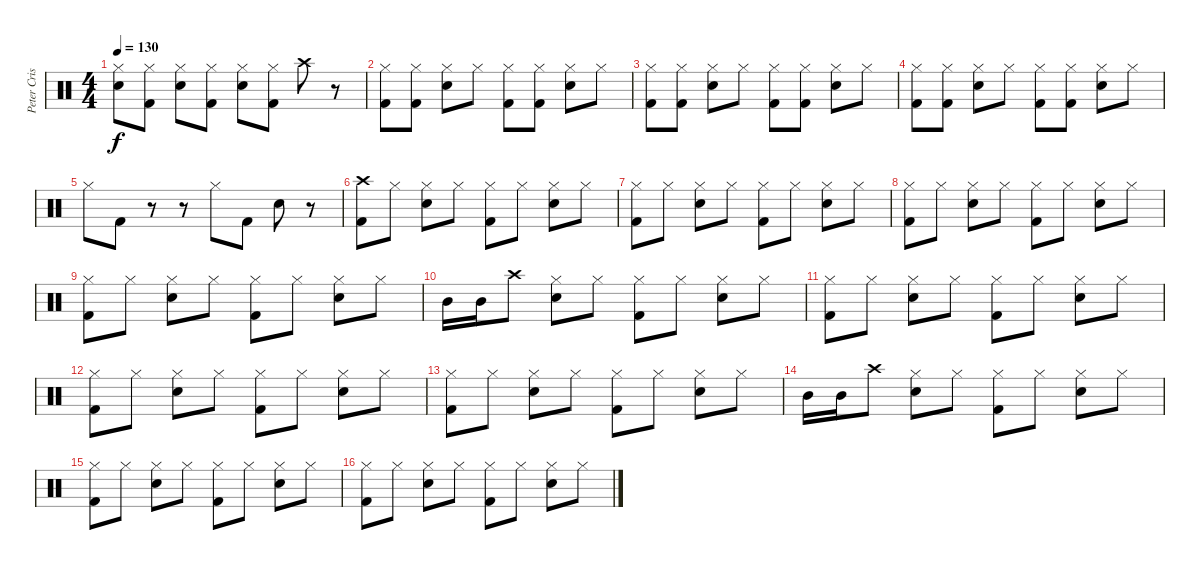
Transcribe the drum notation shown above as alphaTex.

\track ("Peter Criss" "Peter Cris") {instrument percussion}
\staff {score}
\articulation defaults
\ts (4 4)
\tempo 130
\clef neutral
\ks c
("Hi-Hat (closed)" "Electric Snare (hit)").8{dy f} ("Hi-Hat (closed)" "Kick (hit) 2").8 ("Hi-Hat (closed)" "Electric Snare (hit)").8 ("Hi-Hat (closed)" "Kick (hit) 2").8 ("Hi-Hat (closed)" "Electric Snare (hit)").8 ("Hi-Hat (closed)" "Kick (hit) 2").8 "Crash high (hit)".8 r.8 |
("Hi-Hat (closed)" "Kick (hit) 2").8 ("Hi-Hat (closed)" "Kick (hit) 2").8 ("Hi-Hat (closed)" "Electric Snare (hit)").8 "Hi-Hat (closed)".8 ("Hi-Hat (closed)" "Kick (hit) 2").8 ("Hi-Hat (closed)" "Kick (hit) 2").8 ("Hi-Hat (closed)" "Electric Snare (hit)").8 "Hi-Hat (closed)".8 |
("Hi-Hat (closed)" "Kick (hit) 2").8 ("Hi-Hat (closed)" "Kick (hit) 2").8 ("Hi-Hat (closed)" "Electric Snare (hit)").8 "Hi-Hat (closed)".8 ("Hi-Hat (closed)" "Kick (hit) 2").8 ("Hi-Hat (closed)" "Kick (hit) 2").8 ("Hi-Hat (closed)" "Electric Snare (hit)").8 "Hi-Hat (closed)".8 |
("Hi-Hat (closed)" "Kick (hit) 2").8 ("Hi-Hat (closed)" "Kick (hit) 2").8 ("Hi-Hat (closed)" "Electric Snare (hit)").8 "Hi-Hat (closed)".8 ("Hi-Hat (closed)" "Kick (hit) 2").8 ("Hi-Hat (closed)" "Kick (hit) 2").8 ("Hi-Hat (closed)" "Electric Snare (hit)").8 "Hi-Hat (closed)".8 |
"Hi-Hat (closed)".8 "Kick (hit) 2".8 r.8 r.8 "Hi-Hat (closed)".8 "Kick (hit) 2".8 "Electric Snare (hit)".8 r.8 |
("Crash high (hit)" "Kick (hit) 2").8 "Hi-Hat (closed)".8 ("Hi-Hat (closed)" "Electric Snare (hit)").8 "Hi-Hat (closed)".8 ("Hi-Hat (closed)" "Kick (hit) 2").8 "Hi-Hat (closed)".8 ("Hi-Hat (closed)" "Electric Snare (hit)").8 "Hi-Hat (closed)".8 |
("Hi-Hat (closed)" "Kick (hit) 2").8 "Hi-Hat (closed)".8 ("Hi-Hat (closed)" "Electric Snare (hit)").8 "Hi-Hat (closed)".8 ("Hi-Hat (closed)" "Kick (hit) 2").8 "Hi-Hat (closed)".8 ("Hi-Hat (closed)" "Electric Snare (hit)").8 "Hi-Hat (closed)".8 |
("Hi-Hat (closed)" "Kick (hit) 2").8 "Hi-Hat (closed)".8 ("Hi-Hat (closed)" "Electric Snare (hit)").8 "Hi-Hat (closed)".8 ("Hi-Hat (closed)" "Kick (hit) 2").8 "Hi-Hat (closed)".8 ("Hi-Hat (closed)" "Electric Snare (hit)").8 "Hi-Hat (closed)".8 |
("Hi-Hat (closed)" "Kick (hit) 2").8 "Hi-Hat (closed)".8 ("Hi-Hat (closed)" "Electric Snare (hit)").8 "Hi-Hat (closed)".8 ("Hi-Hat (closed)" "Kick (hit) 2").8 "Hi-Hat (closed)".8 ("Hi-Hat (closed)" "Electric Snare (hit)").8 "Hi-Hat (closed)".8 |
"Mid Tom (hit)".16 "Mid Tom (hit)".16 "Crash high (hit)".8 ("Hi-Hat (closed)" "Electric Snare (hit)").8 "Hi-Hat (closed)".8 ("Hi-Hat (closed)" "Kick (hit) 2").8 "Hi-Hat (closed)".8 ("Hi-Hat (closed)" "Electric Snare (hit)").8 "Hi-Hat (closed)".8 |
("Hi-Hat (closed)" "Kick (hit) 2").8 "Hi-Hat (closed)".8 ("Hi-Hat (closed)" "Electric Snare (hit)").8 "Hi-Hat (closed)".8 ("Hi-Hat (closed)" "Kick (hit) 2").8 "Hi-Hat (closed)".8 ("Hi-Hat (closed)" "Electric Snare (hit)").8 "Hi-Hat (closed)".8 |
("Hi-Hat (closed)" "Kick (hit) 2").8 "Hi-Hat (closed)".8 ("Hi-Hat (closed)" "Electric Snare (hit)").8 "Hi-Hat (closed)".8 ("Hi-Hat (closed)" "Kick (hit) 2").8 "Hi-Hat (closed)".8 ("Hi-Hat (closed)" "Electric Snare (hit)").8 "Hi-Hat (closed)".8 |
("Hi-Hat (closed)" "Kick (hit) 2").8 "Hi-Hat (closed)".8 ("Hi-Hat (closed)" "Electric Snare (hit)").8 "Hi-Hat (closed)".8 ("Hi-Hat (closed)" "Kick (hit) 2").8 "Hi-Hat (closed)".8 ("Hi-Hat (closed)" "Electric Snare (hit)").8 "Hi-Hat (closed)".8 |
"Mid Tom (hit)".16 "Mid Tom (hit)".16 "Crash high (hit)".8 ("Hi-Hat (closed)" "Electric Snare (hit)").8 "Hi-Hat (closed)".8 ("Hi-Hat (closed)" "Kick (hit) 2").8 "Hi-Hat (closed)".8 ("Hi-Hat (closed)" "Electric Snare (hit)").8 "Hi-Hat (closed)".8 |
("Hi-Hat (closed)" "Kick (hit) 2").8 "Hi-Hat (closed)".8 ("Hi-Hat (closed)" "Electric Snare (hit)").8 "Hi-Hat (closed)".8 ("Hi-Hat (closed)" "Kick (hit) 2").8 "Hi-Hat (closed)".8 ("Hi-Hat (closed)" "Electric Snare (hit)").8 "Hi-Hat (closed)".8 |
("Hi-Hat (closed)" "Kick (hit) 2").8 "Hi-Hat (closed)".8 ("Hi-Hat (closed)" "Electric Snare (hit)").8 "Hi-Hat (closed)".8 ("Hi-Hat (closed)" "Kick (hit) 2").8 "Hi-Hat (closed)".8 ("Hi-Hat (closed)" "Electric Snare (hit)").8 "Hi-Hat (closed)".8
